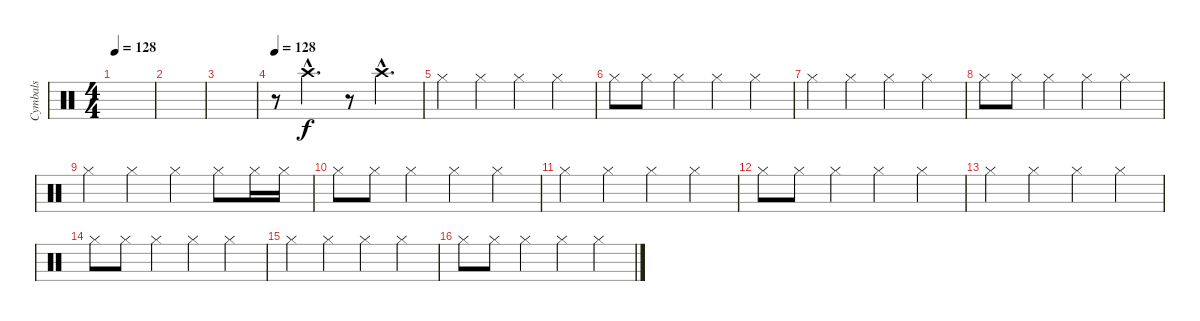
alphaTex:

\track ("Cymbals" "Cymbals") {instrument percussion}
\staff {score}
\articulation defaults
\ts (4 4)
\tempo 128
\clef neutral
\ks c
|
|
|
\tempo 128
r.8 "Crash high (hit)"{hac}.4{d} r.8 "Crash high (hit)"{hac}.4{d} |
"Hi-Hat (closed)".4 "Hi-Hat (closed)".4 "Hi-Hat (closed)".4 "Hi-Hat (closed)".4 |
"Hi-Hat (closed)".8 "Hi-Hat (closed)".8 "Hi-Hat (closed)".4 "Hi-Hat (closed)".4 "Hi-Hat (closed)".4 |
"Hi-Hat (closed)".4 "Hi-Hat (closed)".4 "Hi-Hat (closed)".4 "Hi-Hat (closed)".4 |
"Hi-Hat (closed)".8 "Hi-Hat (closed)".8 "Hi-Hat (closed)".4 "Hi-Hat (closed)".4 "Hi-Hat (closed)".4 |
"Hi-Hat (closed)".4 "Hi-Hat (closed)".4 "Hi-Hat (closed)".4 "Hi-Hat (closed)".8 "Hi-Hat (closed)".16 "Hi-Hat (closed)".16 |
"Hi-Hat (closed)".8 "Hi-Hat (closed)".8 "Hi-Hat (closed)".4 "Hi-Hat (closed)".4 "Hi-Hat (closed)".4 |
"Hi-Hat (closed)".4 "Hi-Hat (closed)".4 "Hi-Hat (closed)".4 "Hi-Hat (closed)".4 |
"Hi-Hat (closed)".8 "Hi-Hat (closed)".8 "Hi-Hat (closed)".4 "Hi-Hat (closed)".4 "Hi-Hat (closed)".4 |
"Hi-Hat (closed)".4 "Hi-Hat (closed)".4 "Hi-Hat (closed)".4 "Hi-Hat (closed)".4 |
"Hi-Hat (closed)".8 "Hi-Hat (closed)".8 "Hi-Hat (closed)".4 "Hi-Hat (closed)".4 "Hi-Hat (closed)".4 |
"Hi-Hat (closed)".4 "Hi-Hat (closed)".4 "Hi-Hat (closed)".4 "Hi-Hat (closed)".4 |
"Hi-Hat (closed)".8 "Hi-Hat (closed)".8 "Hi-Hat (closed)".4 "Hi-Hat (closed)".4 "Hi-Hat (closed)".4
